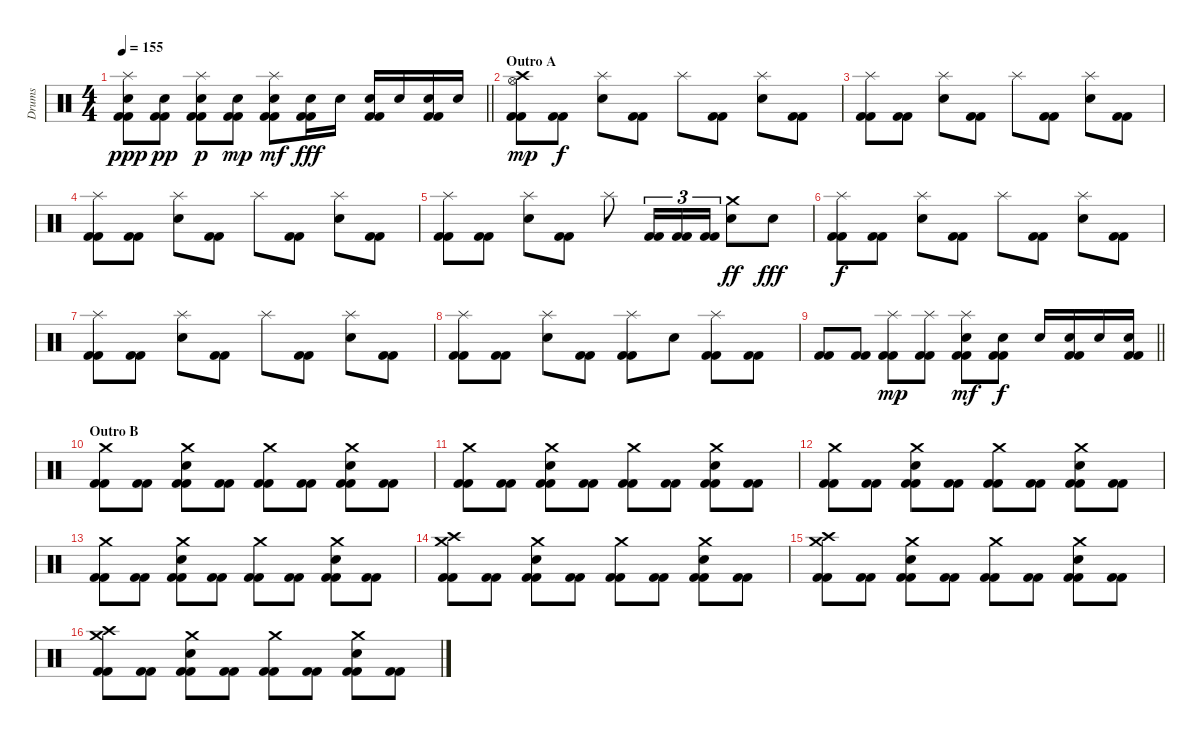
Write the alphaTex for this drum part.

\track ("Drums" "Drums") {instrument percussion}
\staff {score}
\articulation defaults
\ts (4 4)
\tempo 155
\clef neutral
\barLineRight lightlight
\ks c
("Splash (hit)" "Electric Snare (hit)" "Kick (hit) 2" "Kick (hit) 2").8{dy ppp} ("Electric Snare (hit)" "Kick (hit) 2" "Kick (hit) 2").8{dy pp} ("Splash (hit)" "Electric Snare (hit)" "Kick (hit) 2" "Kick (hit) 2").8{dy p} ("Electric Snare (hit)" "Kick (hit) 2" "Kick (hit) 2").8{dy mp} ("Splash (hit)" "Electric Snare (hit)" "Kick (hit) 2" "Kick (hit) 2").8{dy mf} ("Electric Snare (hit)" "Kick (hit) 2" "Kick (hit) 2").16{dy fff} "Electric Snare (hit)".16 ("Electric Snare (hit)" "Kick (hit) 2" "Kick (hit) 2").16 "Electric Snare (hit)".16 ("Electric Snare (hit)" "Kick (hit) 2" "Kick (hit) 2").16 "Electric Snare (hit)".16 |
\section ("" "Outro A")
("Hi-Hat (open)" "Crash high (hit)" "Kick (hit) 2" "Kick (hit) 2").8{dy mp} ("Kick (hit) 2" "Kick (hit) 2").8{dy f} ("Splash (hit)" "Electric Snare (hit)").8 ("Kick (hit) 2" "Kick (hit) 2").8 "Splash (hit)".8 ("Kick (hit) 2" "Kick (hit) 2").8 ("Splash (hit)" "Electric Snare (hit)").8 ("Kick (hit) 2" "Kick (hit) 2").8 |
("Splash (hit)" "Kick (hit) 2" "Kick (hit) 2").8 ("Kick (hit) 2" "Kick (hit) 2").8 ("Splash (hit)" "Electric Snare (hit)").8 ("Kick (hit) 2" "Kick (hit) 2").8 "Splash (hit)".8 ("Kick (hit) 2" "Kick (hit) 2").8 ("Splash (hit)" "Electric Snare (hit)").8 ("Kick (hit) 2" "Kick (hit) 2").8 |
("Splash (hit)" "Kick (hit) 2" "Kick (hit) 2").8 ("Kick (hit) 2" "Kick (hit) 2").8 ("Splash (hit)" "Electric Snare (hit)").8 ("Kick (hit) 2" "Kick (hit) 2").8 "Splash (hit)".8 ("Kick (hit) 2" "Kick (hit) 2").8 ("Splash (hit)" "Electric Snare (hit)").8 ("Kick (hit) 2" "Kick (hit) 2").8 |
("Splash (hit)" "Kick (hit) 2" "Kick (hit) 2").8 ("Kick (hit) 2" "Kick (hit) 2").8 ("Splash (hit)" "Electric Snare (hit)").8 ("Kick (hit) 2" "Kick (hit) 2").8 "Splash (hit)".8 ("Kick (hit) 2" "Kick (hit) 2").16{tu (3 2)} ("Kick (hit) 2" "Kick (hit) 2").16{tu (3 2)} ("Kick (hit) 2" "Kick (hit) 2").16{tu (3 2)} ("Crash medium (hit)" "Electric Snare (hit)").8{dy ff} "Electric Snare (hit)".8{dy fff} |
("Splash (hit)" "Kick (hit) 2" "Kick (hit) 2").8{dy f} ("Kick (hit) 2" "Kick (hit) 2").8 ("Splash (hit)" "Electric Snare (hit)").8 ("Kick (hit) 2" "Kick (hit) 2").8 "Splash (hit)".8 ("Kick (hit) 2" "Kick (hit) 2").8 ("Splash (hit)" "Electric Snare (hit)").8 ("Kick (hit) 2" "Kick (hit) 2").8 |
("Splash (hit)" "Kick (hit) 2" "Kick (hit) 2").8 ("Kick (hit) 2" "Kick (hit) 2").8 ("Splash (hit)" "Electric Snare (hit)").8 ("Kick (hit) 2" "Kick (hit) 2").8 "Splash (hit)".8 ("Kick (hit) 2" "Kick (hit) 2").8 ("Splash (hit)" "Electric Snare (hit)").8 ("Kick (hit) 2" "Kick (hit) 2").8 |
("Splash (hit)" "Kick (hit) 2" "Kick (hit) 2").8 ("Kick (hit) 2" "Kick (hit) 2").8 ("Splash (hit)" "Electric Snare (hit)").8 ("Kick (hit) 2" "Kick (hit) 2").8 ("Splash (hit)" "Kick (hit) 2" "Kick (hit) 2").8 "Electric Snare (hit)".8 ("Splash (hit)" "Kick (hit) 2" "Kick (hit) 2").8 ("Kick (hit) 2" "Kick (hit) 2").8 |
\barLineRight lightlight
("Kick (hit) 2" "Kick (hit) 2").8 ("Kick (hit) 2" "Kick (hit) 2").8 ("Splash (hit)" "Kick (hit) 2" "Kick (hit) 2").8{dy mp} ("Splash (hit)" "Kick (hit) 2" "Kick (hit) 2").8 ("Splash (hit)" "Electric Snare (hit)" "Kick (hit) 2" "Kick (hit) 2").8{dy mf} ("Electric Snare (hit)" "Kick (hit) 2" "Kick (hit) 2").8{dy f} "Electric Snare (hit)".16 ("Electric Snare (hit)" "Kick (hit) 2" "Kick (hit) 2").16 "Electric Snare (hit)".16 ("Electric Snare (hit)" "Kick (hit) 2" "Kick (hit) 2").16 |
\section ("" "Outro B")
("Crash medium (hit)" "Kick (hit) 2" "Kick (hit) 2").8 ("Kick (hit) 2" "Kick (hit) 2").8 ("Crash medium (hit)" "Electric Snare (hit)" "Kick (hit) 2" "Kick (hit) 2").8 ("Kick (hit) 2" "Kick (hit) 2").8 ("Crash medium (hit)" "Kick (hit) 2" "Kick (hit) 2").8 ("Kick (hit) 2" "Kick (hit) 2").8 ("Crash medium (hit)" "Electric Snare (hit)" "Kick (hit) 2" "Kick (hit) 2").8 ("Kick (hit) 2" "Kick (hit) 2").8 |
("Crash medium (hit)" "Kick (hit) 2" "Kick (hit) 2").8 ("Kick (hit) 2" "Kick (hit) 2").8 ("Crash medium (hit)" "Electric Snare (hit)" "Kick (hit) 2" "Kick (hit) 2").8 ("Kick (hit) 2" "Kick (hit) 2").8 ("Crash medium (hit)" "Kick (hit) 2" "Kick (hit) 2").8 ("Kick (hit) 2" "Kick (hit) 2").8 ("Crash medium (hit)" "Electric Snare (hit)" "Kick (hit) 2" "Kick (hit) 2").8 ("Kick (hit) 2" "Kick (hit) 2").8 |
("Crash medium (hit)" "Kick (hit) 2" "Kick (hit) 2").8 ("Kick (hit) 2" "Kick (hit) 2").8 ("Crash medium (hit)" "Electric Snare (hit)" "Kick (hit) 2" "Kick (hit) 2").8 ("Kick (hit) 2" "Kick (hit) 2").8 ("Crash medium (hit)" "Kick (hit) 2" "Kick (hit) 2").8 ("Kick (hit) 2" "Kick (hit) 2").8 ("Crash medium (hit)" "Electric Snare (hit)" "Kick (hit) 2" "Kick (hit) 2").8 ("Kick (hit) 2" "Kick (hit) 2").8 |
("Crash medium (hit)" "Kick (hit) 2" "Kick (hit) 2").8 ("Kick (hit) 2" "Kick (hit) 2").8 ("Crash medium (hit)" "Electric Snare (hit)" "Kick (hit) 2" "Kick (hit) 2").8 ("Kick (hit) 2" "Kick (hit) 2").8 ("Crash medium (hit)" "Kick (hit) 2" "Kick (hit) 2").8 ("Kick (hit) 2" "Kick (hit) 2").8 ("Crash medium (hit)" "Electric Snare (hit)" "Kick (hit) 2" "Kick (hit) 2").8 ("Kick (hit) 2" "Kick (hit) 2").8 |
("Crash medium (hit)" "Crash high (hit)" "Kick (hit) 2" "Kick (hit) 2").8 ("Kick (hit) 2" "Kick (hit) 2").8 ("Crash medium (hit)" "Electric Snare (hit)" "Kick (hit) 2" "Kick (hit) 2").8 ("Kick (hit) 2" "Kick (hit) 2").8 ("Crash medium (hit)" "Kick (hit) 2" "Kick (hit) 2").8 ("Kick (hit) 2" "Kick (hit) 2").8 ("Crash medium (hit)" "Electric Snare (hit)" "Kick (hit) 2" "Kick (hit) 2").8 ("Kick (hit) 2" "Kick (hit) 2").8 |
("Crash medium (hit)" "Crash high (hit)" "Kick (hit) 2" "Kick (hit) 2").8 ("Kick (hit) 2" "Kick (hit) 2").8 ("Crash medium (hit)" "Electric Snare (hit)" "Kick (hit) 2" "Kick (hit) 2").8 ("Kick (hit) 2" "Kick (hit) 2").8 ("Crash medium (hit)" "Kick (hit) 2" "Kick (hit) 2").8 ("Kick (hit) 2" "Kick (hit) 2").8 ("Crash medium (hit)" "Electric Snare (hit)" "Kick (hit) 2" "Kick (hit) 2").8 ("Kick (hit) 2" "Kick (hit) 2").8 |
("Crash medium (hit)" "Crash high (hit)" "Kick (hit) 2" "Kick (hit) 2").8 ("Kick (hit) 2" "Kick (hit) 2").8 ("Crash medium (hit)" "Electric Snare (hit)" "Kick (hit) 2" "Kick (hit) 2").8 ("Kick (hit) 2" "Kick (hit) 2").8 ("Crash medium (hit)" "Kick (hit) 2" "Kick (hit) 2").8 ("Kick (hit) 2" "Kick (hit) 2").8 ("Crash medium (hit)" "Electric Snare (hit)" "Kick (hit) 2" "Kick (hit) 2").8 ("Kick (hit) 2" "Kick (hit) 2").8
